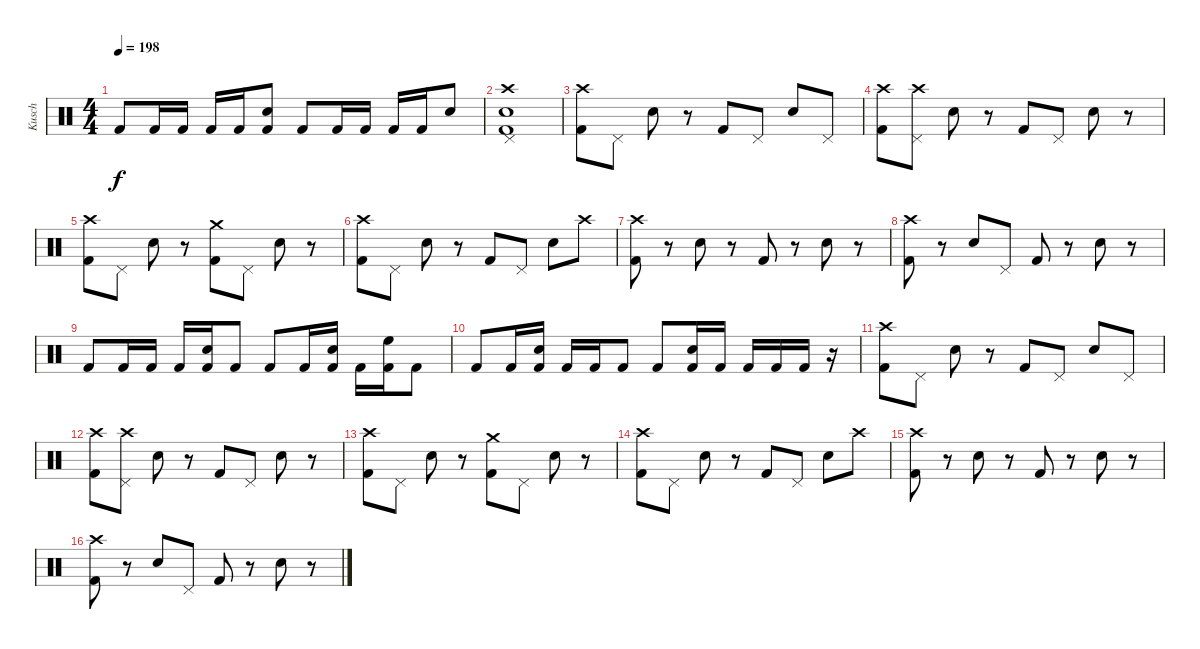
\track ("Kusch" "Kusch") {instrument percussion}
\staff {score}
\articulation defaults
\ts (4 4)
\tempo 198
\clef neutral
\ks c "Kick (hit) 2".8{dy f} "Kick (hit) 2".16 "Kick (hit) 2".16 "Kick (hit) 2".16 "Kick (hit) 2".16
("Snare (hit) 2" "Kick (hit) 2").8 "Kick (hit) 2".8 "Kick (hit) 2".16 "Kick (hit) 2".16 "Kick (hit) 2".16 "Kick (hit) 2".16 "Snare (hit) 2".8 |
("Snare (hit) 2" "Crash high (hit)" "Pedal Hi-Hat (hit)" "Kick (hit) 2").1 |
("Crash high (hit)" "Kick (hit) 2").8 "Pedal Hi-Hat (hit)".8 "Snare (hit) 2".8 r.8 "Kick (hit) 2".8 "Pedal Hi-Hat (hit)".8 "Snare (hit) 2".8 "Pedal Hi-Hat (hit)".8 |
("Crash high (hit)" "Kick (hit) 2").8 ("Crash high (hit)" "Pedal Hi-Hat (hit)").8 "Snare (hit) 2".8 r.8 "Kick (hit) 2".8 "Pedal Hi-Hat (hit)".8 "Snare (hit) 2".8 r.8 |
("Crash high (hit)" "Kick (hit) 2").8 "Pedal Hi-Hat (hit)".8 "Snare (hit) 2".8 r.8 ("Crash medium (hit)" "Kick (hit) 2").8 "Pedal Hi-Hat (hit)".8 "Snare (hit) 2".8 r.8 |
("Crash high (hit)" "Kick (hit) 2").8 "Pedal Hi-Hat (hit)".8 "Snare (hit) 2".8 r.8 "Kick (hit) 2".8 "Pedal Hi-Hat (hit)".8 "Snare (hit) 2".8 "Crash high (hit)".8 |
("Crash high (hit)" "Kick (hit) 2").8 r.8 "Snare (hit) 2".8 r.8 "Kick (hit) 2".8 r.8 "Snare (hit) 2".8 r.8 |
("Crash high (hit)" "Kick (hit) 2").8 r.8 "Snare (hit) 2".8 "Pedal Hi-Hat (hit)".8 "Kick (hit) 2".8 r.8 "Snare (hit) 2".8 r.8 |
"Kick (hit) 2".8 "Kick (hit) 2".16 "Kick (hit) 2".16 "Kick (hit) 2".16 ("Snare (hit) 2" "Kick (hit) 2").16 "Kick (hit) 2".8 "Kick (hit) 2".8 "Kick (hit) 2".16 ("Snare (hit) 2" "Kick (hit) 2").16 "Kick (hit) 2".16 ("High Floor Tom (hit)" "Kick (hit) 2").16 "Kick (hit) 2".8 |
"Kick (hit) 2".8 "Kick (hit) 2".16 ("Snare (hit) 2" "Kick (hit) 2").16 "Kick (hit) 2".16 "Kick (hit) 2".16 "Kick (hit) 2".8 "Kick (hit) 2".8 ("Snare (hit) 2" "Kick (hit) 2").16 "Kick (hit) 2".16 "Kick (hit) 2".16 "Kick (hit) 2".16 "Kick (hit) 2".16 r.16 |
("Crash high (hit)" "Kick (hit) 2").8 "Pedal Hi-Hat (hit)".8 "Snare (hit) 2".8 r.8 "Kick (hit) 2".8 "Pedal Hi-Hat (hit)".8 "Snare (hit) 2".8 "Pedal Hi-Hat (hit)".8 |
("Crash high (hit)" "Kick (hit) 2").8 ("Crash high (hit)" "Pedal Hi-Hat (hit)").8 "Snare (hit) 2".8 r.8 "Kick (hit) 2".8 "Pedal Hi-Hat (hit)".8 "Snare (hit) 2".8 r.8 |
("Crash high (hit)" "Kick (hit) 2").8 "Pedal Hi-Hat (hit)".8 "Snare (hit) 2".8 r.8 ("Crash medium (hit)" "Kick (hit) 2").8 "Pedal Hi-Hat (hit)".8 "Snare (hit) 2".8 r.8 |
("Crash high (hit)" "Kick (hit) 2").8 "Pedal Hi-Hat (hit)".8 "Snare (hit) 2".8 r.8 "Kick (hit) 2".8 "Pedal Hi-Hat (hit)".8 "Snare (hit) 2".8 "Crash high (hit)".8 |
("Crash high (hit)" "Kick (hit) 2").8 r.8 "Snare (hit) 2".8 r.8 "Kick (hit) 2".8 r.8 "Snare (hit) 2".8 r.8 |
("Crash high (hit)" "Kick (hit) 2").8 r.8 "Snare (hit) 2".8 "Pedal Hi-Hat (hit)".8 "Kick (hit) 2".8 r.8 "Snare (hit) 2".8 r.8
